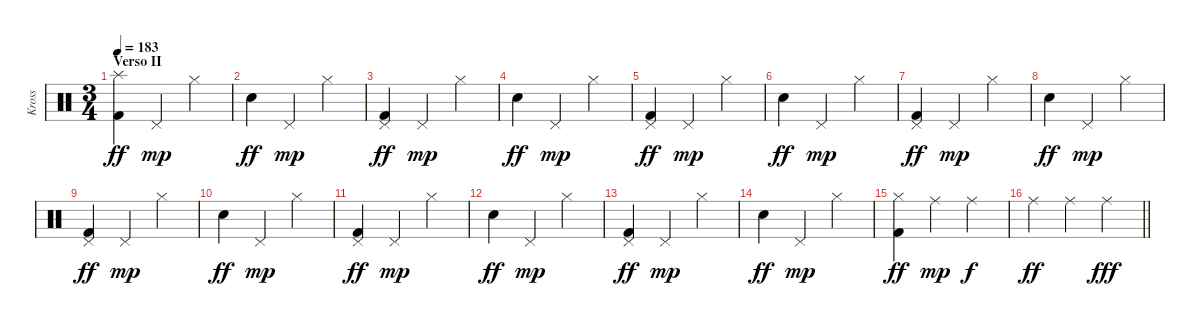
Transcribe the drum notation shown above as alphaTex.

\track ("Kross" "Kross") {instrument percussion}
\staff {score}
\articulation defaults
\ts (3 4)
\section ("" "Verso II")
\tempo 183
\clef neutral
\ks c
("Splash (hit)" "Kick (hit) 2").4{dy ff} "Pedal Hi-Hat (hit)".4{dy mp} "Hi-Hat (closed)".4 |
"Electric Snare (hit)".4{dy ff} "Pedal Hi-Hat (hit)".4{dy mp} "Hi-Hat (closed)".4 |
("Pedal Hi-Hat (hit)" "Kick (hit) 2").4{dy ff} "Pedal Hi-Hat (hit)".4{dy mp} "Hi-Hat (closed)".4 |
"Electric Snare (hit)".4{dy ff} "Pedal Hi-Hat (hit)".4{dy mp} "Hi-Hat (closed)".4 |
("Pedal Hi-Hat (hit)" "Kick (hit) 2").4{dy ff} "Pedal Hi-Hat (hit)".4{dy mp} "Hi-Hat (closed)".4 |
"Electric Snare (hit)".4{dy ff} "Pedal Hi-Hat (hit)".4{dy mp} "Hi-Hat (closed)".4 |
("Pedal Hi-Hat (hit)" "Kick (hit) 2").4{dy ff} "Pedal Hi-Hat (hit)".4{dy mp} "Hi-Hat (closed)".4 |
"Electric Snare (hit)".4{dy ff} "Pedal Hi-Hat (hit)".4{dy mp} "Hi-Hat (closed)".4 |
("Pedal Hi-Hat (hit)" "Kick (hit) 2").4{dy ff} "Pedal Hi-Hat (hit)".4{dy mp} "Hi-Hat (closed)".4 |
"Electric Snare (hit)".4{dy ff} "Pedal Hi-Hat (hit)".4{dy mp} "Hi-Hat (closed)".4 |
("Pedal Hi-Hat (hit)" "Kick (hit) 2").4{dy ff} "Pedal Hi-Hat (hit)".4{dy mp} "Hi-Hat (closed)".4 |
"Electric Snare (hit)".4{dy ff} "Pedal Hi-Hat (hit)".4{dy mp} "Hi-Hat (closed)".4 |
("Pedal Hi-Hat (hit)" "Kick (hit) 2").4{dy ff} "Pedal Hi-Hat (hit)".4{dy mp} "Hi-Hat (closed)".4 |
"Electric Snare (hit)".4{dy ff} "Pedal Hi-Hat (hit)".4{dy mp} "Hi-Hat (closed)".4 |
("Hi-Hat (closed)" "Kick (hit) 2").4{dy ff} "Ride (middle)".4{dy mp} "Ride (middle)".4{dy f} |
\barLineRight lightlight "Ride (middle)".4{dy ff} "Ride (middle)".4 "Ride (middle)".4{dy fff}
